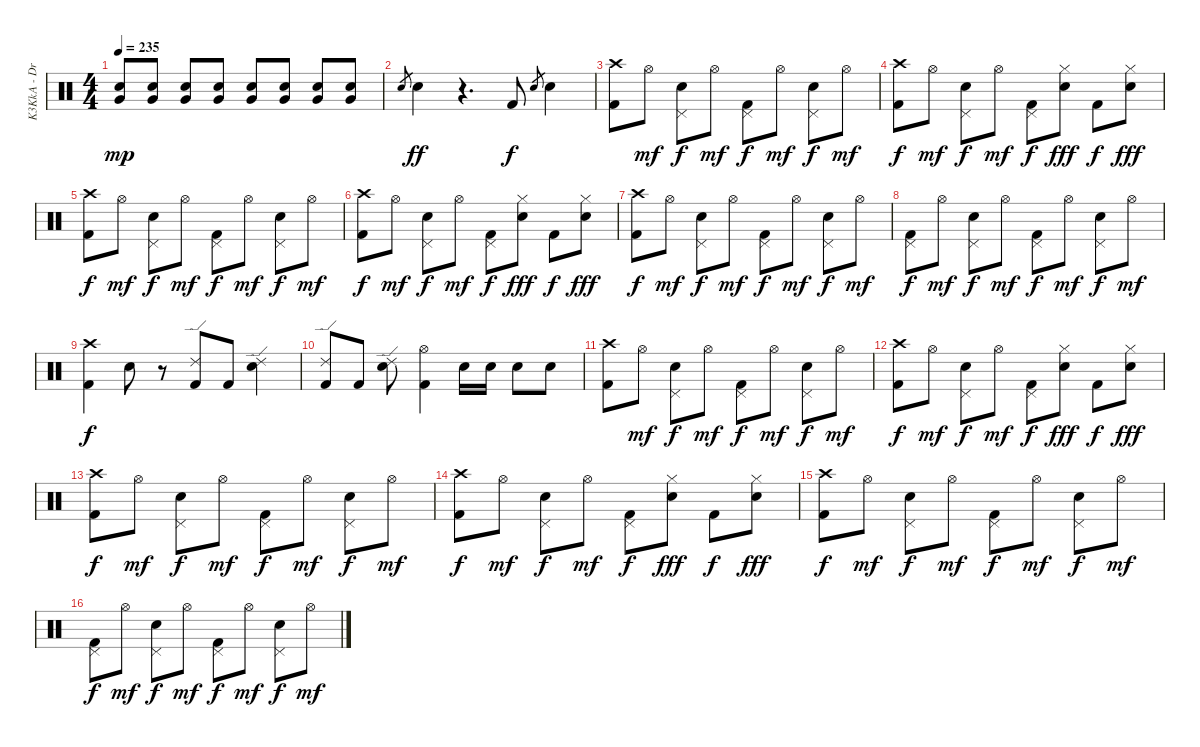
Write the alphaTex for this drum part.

\track ("K3KkA - Drums" "K3KkA - Dr") {instrument percussion}
\staff {score}
\articulation defaults
\ts (4 4)
\tempo 235
\clef neutral
\ks c
("Very Low Tom (hit)" "Snare (hit) 2").8{dy mp} ("Very Low Tom (hit)" "Snare (hit) 2").8 ("Very Low Tom (hit)" "Snare (hit) 2").8 ("Very Low Tom (hit)" "Snare (hit) 2").8 ("Very Low Tom (hit)" "Snare (hit) 2").8 ("Very Low Tom (hit)" "Snare (hit) 2").8 ("Very Low Tom (hit)" "Snare (hit) 2").8 ("Very Low Tom (hit)" "Snare (hit) 2").8 |
"Snare (hit) 2".8{gr} "Snare (hit) 2".4{dy ff} r.4{d} "Kick (hit) 2".8{dy f} "Snare (hit) 2".8{gr} "Snare (hit) 2".4 |
("Crash high (hit)" "Kick (hit) 2").8 "Hi-Hat (open)".8{dy mf} ("Pedal Hi-Hat (hit)" "Snare (hit) 2").8{dy f} "Hi-Hat (open)".8{dy mf} ("Pedal Hi-Hat (hit)" "Kick (hit) 2").8{dy f} "Hi-Hat (open)".8{dy mf} ("Pedal Hi-Hat (hit)" "Snare (hit) 2").8{dy f} "Hi-Hat (open)".8{dy mf} |
("Crash high (hit)" "Kick (hit) 2").8{dy f} "Hi-Hat (open)".8{dy mf} ("Pedal Hi-Hat (hit)" "Snare (hit) 2").8{dy f} "Hi-Hat (open)".8{dy mf} ("Pedal Hi-Hat (hit)" "Kick (hit) 2").8{dy f} ("Hi-Hat (closed)" "Snare (hit) 2").8{dy fff} "Kick (hit) 2".8{dy f} ("Hi-Hat (closed)" "Snare (hit) 2").8{dy fff} |
("Crash high (hit)" "Kick (hit) 2").8{dy f} "Hi-Hat (open)".8{dy mf} ("Pedal Hi-Hat (hit)" "Snare (hit) 2").8{dy f} "Hi-Hat (open)".8{dy mf} ("Pedal Hi-Hat (hit)" "Kick (hit) 2").8{dy f} "Hi-Hat (open)".8{dy mf} ("Pedal Hi-Hat (hit)" "Snare (hit) 2").8{dy f} "Hi-Hat (open)".8{dy mf} |
("Crash high (hit)" "Kick (hit) 2").8{dy f} "Hi-Hat (open)".8{dy mf} ("Pedal Hi-Hat (hit)" "Snare (hit) 2").8{dy f} "Hi-Hat (open)".8{dy mf} ("Pedal Hi-Hat (hit)" "Kick (hit) 2").8{dy f} ("Hi-Hat (closed)" "Snare (hit) 2").8{dy fff} "Kick (hit) 2".8{dy f} ("Hi-Hat (closed)" "Snare (hit) 2").8{dy fff} |
("Crash high (hit)" "Kick (hit) 2").8{dy f} "Hi-Hat (open)".8{dy mf} ("Pedal Hi-Hat (hit)" "Snare (hit) 2").8{dy f} "Hi-Hat (open)".8{dy mf} ("Pedal Hi-Hat (hit)" "Kick (hit) 2").8{dy f} "Hi-Hat (open)".8{dy mf} ("Pedal Hi-Hat (hit)" "Snare (hit) 2").8{dy f} "Hi-Hat (open)".8{dy mf} |
("Pedal Hi-Hat (hit)" "Kick (hit) 2").8{dy f} "Hi-Hat (open)".8{dy mf} ("Pedal Hi-Hat (hit)" "Snare (hit) 2").8{dy f} "Hi-Hat (open)".8{dy mf} ("Pedal Hi-Hat (hit)" "Kick (hit) 2").8{dy f} "Hi-Hat (open)".8{dy mf} ("Pedal Hi-Hat (hit)" "Snare (hit) 2").8{dy f} "Hi-Hat (open)".8{dy mf} |
("Crash high (hit)" "Kick (hit) 2").4{dy f volume 13} "Electric Snare (hit)".8 r.8 ("Ride (edge) 2" "Kick (hit) 2").8 "Kick (hit) 2".8 ("Ride (edge) 2" "Electric Snare (hit)").4 |
("Ride (edge) 2" "Kick (hit) 2").8 "Kick (hit) 2".8 ("Ride (edge) 2" "Electric Snare (hit)").8 ("Hi-Hat (open)" "Kick (hit) 2").4 "Snare (hit) 2".16 "Snare (hit) 2".16 "Snare (hit) 2".8 "Snare (hit) 2".8 |
("Crash high (hit)" "Kick (hit) 2").8 "Hi-Hat (open)".8{dy mf} ("Pedal Hi-Hat (hit)" "Snare (hit) 2").8{dy f} "Hi-Hat (open)".8{dy mf} ("Pedal Hi-Hat (hit)" "Kick (hit) 2").8{dy f} "Hi-Hat (open)".8{dy mf} ("Pedal Hi-Hat (hit)" "Snare (hit) 2").8{dy f} "Hi-Hat (open)".8{dy mf} |
("Crash high (hit)" "Kick (hit) 2").8{dy f} "Hi-Hat (open)".8{dy mf} ("Pedal Hi-Hat (hit)" "Snare (hit) 2").8{dy f} "Hi-Hat (open)".8{dy mf} ("Pedal Hi-Hat (hit)" "Kick (hit) 2").8{dy f} ("Hi-Hat (closed)" "Snare (hit) 2").8{dy fff} "Kick (hit) 2".8{dy f} ("Hi-Hat (closed)" "Snare (hit) 2").8{dy fff} |
("Crash high (hit)" "Kick (hit) 2").8{dy f} "Hi-Hat (open)".8{dy mf} ("Pedal Hi-Hat (hit)" "Snare (hit) 2").8{dy f} "Hi-Hat (open)".8{dy mf} ("Pedal Hi-Hat (hit)" "Kick (hit) 2").8{dy f} "Hi-Hat (open)".8{dy mf} ("Pedal Hi-Hat (hit)" "Snare (hit) 2").8{dy f} "Hi-Hat (open)".8{dy mf} |
("Crash high (hit)" "Kick (hit) 2").8{dy f} "Hi-Hat (open)".8{dy mf} ("Pedal Hi-Hat (hit)" "Snare (hit) 2").8{dy f} "Hi-Hat (open)".8{dy mf} ("Pedal Hi-Hat (hit)" "Kick (hit) 2").8{dy f} ("Hi-Hat (closed)" "Snare (hit) 2").8{dy fff} "Kick (hit) 2".8{dy f} ("Hi-Hat (closed)" "Snare (hit) 2").8{dy fff} |
("Crash high (hit)" "Kick (hit) 2").8{dy f} "Hi-Hat (open)".8{dy mf} ("Pedal Hi-Hat (hit)" "Snare (hit) 2").8{dy f} "Hi-Hat (open)".8{dy mf} ("Pedal Hi-Hat (hit)" "Kick (hit) 2").8{dy f} "Hi-Hat (open)".8{dy mf} ("Pedal Hi-Hat (hit)" "Snare (hit) 2").8{dy f} "Hi-Hat (open)".8{dy mf} |
("Pedal Hi-Hat (hit)" "Kick (hit) 2").8{dy f} "Hi-Hat (open)".8{dy mf} ("Pedal Hi-Hat (hit)" "Snare (hit) 2").8{dy f} "Hi-Hat (open)".8{dy mf} ("Pedal Hi-Hat (hit)" "Kick (hit) 2").8{dy f} "Hi-Hat (open)".8{dy mf} ("Pedal Hi-Hat (hit)" "Snare (hit) 2").8{dy f} "Hi-Hat (open)".8{dy mf}
